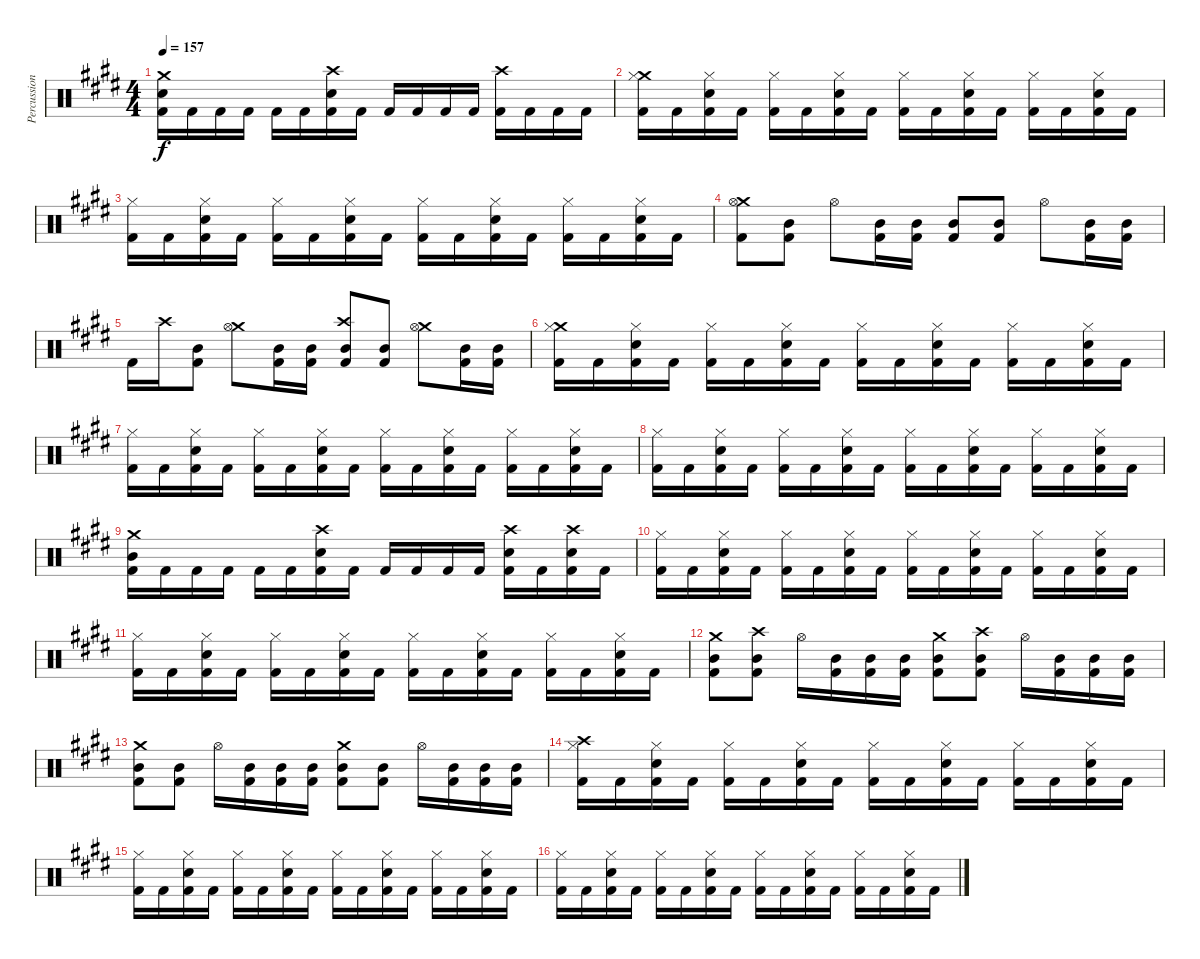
\track ("Percussion (Thomen Stauch)" "Percussion") {instrument percussion}
\staff {score}
\articulation defaults
\ts (4 4)
\tempo 157
\clef neutral
\ks c#minor
("Crash medium (hit)" "Snare (hit) 2" "Kick (hit) 2").16{dy f} "Kick (hit) 2".16 "Kick (hit) 2".16 "Kick (hit) 2".16 "Kick (hit) 2".16 "Kick (hit) 2".16 ("Crash high (hit)" "Snare (hit) 2" "Kick (hit) 2").16 "Kick (hit) 2".16 "Kick (hit) 2".16 "Kick (hit) 2".16 "Kick (hit) 2".16 "Kick (hit) 2".16 ("Crash high (hit)" "Kick (hit) 2").16 "Kick (hit) 2".16 "Kick (hit) 2".16 "Kick (hit) 2".16 |
("Crash medium (hit)" "Hi-Hat (closed)" "Kick (hit) 2").16 "Kick (hit) 2".16 ("Hi-Hat (closed)" "Snare (hit) 2" "Kick (hit) 2").16 "Kick (hit) 2".16 ("Hi-Hat (closed)" "Kick (hit) 2").16 "Kick (hit) 2".16 ("Hi-Hat (closed)" "Snare (hit) 2" "Kick (hit) 2").16 "Kick (hit) 2".16 ("Hi-Hat (closed)" "Kick (hit) 2").16 "Kick (hit) 2".16 ("Hi-Hat (closed)" "Snare (hit) 2" "Kick (hit) 2").16 "Kick (hit) 2".16 ("Hi-Hat (closed)" "Kick (hit) 2").16 "Kick (hit) 2".16 ("Hi-Hat (closed)" "Snare (hit) 2" "Kick (hit) 2").16 "Kick (hit) 2".16 |
("Hi-Hat (closed)" "Kick (hit) 2").16 "Kick (hit) 2".16 ("Hi-Hat (closed)" "Snare (hit) 2" "Kick (hit) 2").16 "Kick (hit) 2".16 ("Hi-Hat (closed)" "Kick (hit) 2").16 "Kick (hit) 2".16 ("Hi-Hat (closed)" "Snare (hit) 2" "Kick (hit) 2").16 "Kick (hit) 2".16 ("Hi-Hat (closed)" "Kick (hit) 2").16 "Kick (hit) 2".16 ("Hi-Hat (closed)" "Snare (hit) 2" "Kick (hit) 2").16 "Kick (hit) 2".16 ("Hi-Hat (closed)" "Kick (hit) 2").16 "Kick (hit) 2".16 ("Hi-Hat (closed)" "Snare (hit) 2" "Kick (hit) 2").16 "Kick (hit) 2".16 |
("Crash medium (hit)" "Hi-Hat (open)" "Kick (hit) 2").8 ("Mid Tom (hit)" "Kick (hit) 2").8 "Hi-Hat (open)".8 ("Mid Tom (hit)" "Kick (hit) 2").16 ("Mid Tom (hit)" "Kick (hit) 2").16 ("Mid Tom (hit)" "Kick (hit) 2").8 ("Mid Tom (hit)" "Kick (hit) 2").8 "Hi-Hat (open)".8 ("Mid Tom (hit)" "Kick (hit) 2").16 ("Mid Tom (hit)" "Kick (hit) 2").16 |
"Kick (hit) 2".16 "Crash high (hit)".16 ("Mid Tom (hit)" "Kick (hit) 2").8 ("Crash medium (hit)" "Hi-Hat (open)").8 ("Mid Tom (hit)" "Kick (hit) 2").16 ("Mid Tom (hit)" "Kick (hit) 2").16 ("Crash high (hit)" "Mid Tom (hit)" "Kick (hit) 2").8 ("Mid Tom (hit)" "Kick (hit) 2").8 ("Crash medium (hit)" "Hi-Hat (open)").8 ("Mid Tom (hit)" "Kick (hit) 2").16 ("Mid Tom (hit)" "Kick (hit) 2").16 |
("Crash medium (hit)" "Hi-Hat (closed)" "Kick (hit) 2").16 "Kick (hit) 2".16 ("Hi-Hat (closed)" "Snare (hit) 2" "Kick (hit) 2").16 "Kick (hit) 2".16 ("Hi-Hat (closed)" "Kick (hit) 2").16 "Kick (hit) 2".16 ("Hi-Hat (closed)" "Snare (hit) 2" "Kick (hit) 2").16 "Kick (hit) 2".16 ("Hi-Hat (closed)" "Kick (hit) 2").16 "Kick (hit) 2".16 ("Hi-Hat (closed)" "Snare (hit) 2" "Kick (hit) 2").16 "Kick (hit) 2".16 ("Hi-Hat (closed)" "Kick (hit) 2").16 "Kick (hit) 2".16 ("Hi-Hat (closed)" "Snare (hit) 2" "Kick (hit) 2").16 "Kick (hit) 2".16 |
("Hi-Hat (closed)" "Kick (hit) 2").16 "Kick (hit) 2".16 ("Hi-Hat (closed)" "Snare (hit) 2" "Kick (hit) 2").16 "Kick (hit) 2".16 ("Hi-Hat (closed)" "Kick (hit) 2").16 "Kick (hit) 2".16 ("Hi-Hat (closed)" "Snare (hit) 2" "Kick (hit) 2").16 "Kick (hit) 2".16 ("Hi-Hat (closed)" "Kick (hit) 2").16 "Kick (hit) 2".16 ("Hi-Hat (closed)" "Snare (hit) 2" "Kick (hit) 2").16 "Kick (hit) 2".16 ("Hi-Hat (closed)" "Kick (hit) 2").16 "Kick (hit) 2".16 ("Hi-Hat (closed)" "Snare (hit) 2" "Kick (hit) 2").16 "Kick (hit) 2".16 |
("Hi-Hat (closed)" "Kick (hit) 2").16 "Kick (hit) 2".16 ("Hi-Hat (closed)" "Snare (hit) 2" "Kick (hit) 2").16 "Kick (hit) 2".16 ("Hi-Hat (closed)" "Kick (hit) 2").16 "Kick (hit) 2".16 ("Hi-Hat (closed)" "Snare (hit) 2" "Kick (hit) 2").16 "Kick (hit) 2".16 ("Hi-Hat (closed)" "Kick (hit) 2").16 "Kick (hit) 2".16 ("Hi-Hat (closed)" "Snare (hit) 2" "Kick (hit) 2").16 "Kick (hit) 2".16 ("Hi-Hat (closed)" "Kick (hit) 2").16 "Kick (hit) 2".16 ("Hi-Hat (closed)" "Snare (hit) 2" "Kick (hit) 2").16 "Kick (hit) 2".16 |
("Crash medium (hit)" "Mid Tom (hit)" "Kick (hit) 2").16 "Kick (hit) 2".16 "Kick (hit) 2".16 "Kick (hit) 2".16 "Kick (hit) 2".16 "Kick (hit) 2".16 ("Crash high (hit)" "Snare (hit) 2" "Kick (hit) 2").16 "Kick (hit) 2".16 "Kick (hit) 2".16 "Kick (hit) 2".16 "Kick (hit) 2".16 "Kick (hit) 2".16 ("Crash high (hit)" "Snare (hit) 2" "Kick (hit) 2").16 "Kick (hit) 2".16 ("Crash high (hit)" "Snare (hit) 2" "Kick (hit) 2").16 "Kick (hit) 2".16 |
("Hi-Hat (closed)" "Kick (hit) 2").16 "Kick (hit) 2".16 ("Hi-Hat (closed)" "Snare (hit) 2" "Kick (hit) 2").16 "Kick (hit) 2".16 ("Hi-Hat (closed)" "Kick (hit) 2").16 "Kick (hit) 2".16 ("Hi-Hat (closed)" "Snare (hit) 2" "Kick (hit) 2").16 "Kick (hit) 2".16 ("Hi-Hat (closed)" "Kick (hit) 2").16 "Kick (hit) 2".16 ("Hi-Hat (closed)" "Snare (hit) 2" "Kick (hit) 2").16 "Kick (hit) 2".16 ("Hi-Hat (closed)" "Kick (hit) 2").16 "Kick (hit) 2".16 ("Hi-Hat (closed)" "Snare (hit) 2" "Kick (hit) 2").16 "Kick (hit) 2".16 |
("Hi-Hat (closed)" "Kick (hit) 2").16 "Kick (hit) 2".16 ("Hi-Hat (closed)" "Snare (hit) 2" "Kick (hit) 2").16 "Kick (hit) 2".16 ("Hi-Hat (closed)" "Kick (hit) 2").16 "Kick (hit) 2".16 ("Hi-Hat (closed)" "Snare (hit) 2" "Kick (hit) 2").16 "Kick (hit) 2".16 ("Hi-Hat (closed)" "Kick (hit) 2").16 "Kick (hit) 2".16 ("Hi-Hat (closed)" "Snare (hit) 2" "Kick (hit) 2").16 "Kick (hit) 2".16 ("Hi-Hat (closed)" "Kick (hit) 2").16 "Kick (hit) 2".16 ("Hi-Hat (closed)" "Snare (hit) 2" "Kick (hit) 2").16 "Kick (hit) 2".16 |
("Crash medium (hit)" "Mid Tom (hit)" "Kick (hit) 2").8 ("Crash high (hit)" "Mid Tom (hit)" "Kick (hit) 2").8 "Hi-Hat (open)".16 ("Mid Tom (hit)" "Kick (hit) 2").16 ("Mid Tom (hit)" "Kick (hit) 2").16 ("Mid Tom (hit)" "Kick (hit) 2").16 ("Crash medium (hit)" "Mid Tom (hit)" "Kick (hit) 2").8 ("Crash high (hit)" "Mid Tom (hit)" "Kick (hit) 2").8 "Hi-Hat (open)".16 ("Mid Tom (hit)" "Kick (hit) 2").16 ("Mid Tom (hit)" "Kick (hit) 2").16 ("Mid Tom (hit)" "Kick (hit) 2").16 |
("Crash medium (hit)" "Mid Tom (hit)" "Kick (hit) 2").8 ("Mid Tom (hit)" "Kick (hit) 2").8 "Hi-Hat (open)".16 ("Mid Tom (hit)" "Kick (hit) 2").16 ("Mid Tom (hit)" "Kick (hit) 2").16 ("Mid Tom (hit)" "Kick (hit) 2").16 ("Crash medium (hit)" "Mid Tom (hit)" "Kick (hit) 2").8 ("Mid Tom (hit)" "Kick (hit) 2").8 "Hi-Hat (open)".16 ("Mid Tom (hit)" "Kick (hit) 2").16 ("Mid Tom (hit)" "Kick (hit) 2").16 ("Mid Tom (hit)" "Kick (hit) 2").16 |
("Crash high (hit)" "Hi-Hat (closed)" "Kick (hit) 2").16 "Kick (hit) 2".16 ("Hi-Hat (closed)" "Snare (hit) 2" "Kick (hit) 2").16 "Kick (hit) 2".16 ("Hi-Hat (closed)" "Kick (hit) 2").16 "Kick (hit) 2".16 ("Hi-Hat (closed)" "Snare (hit) 2" "Kick (hit) 2").16 "Kick (hit) 2".16 ("Hi-Hat (closed)" "Kick (hit) 2").16 "Kick (hit) 2".16 ("Hi-Hat (closed)" "Snare (hit) 2" "Kick (hit) 2").16 "Kick (hit) 2".16 ("Hi-Hat (closed)" "Kick (hit) 2").16 "Kick (hit) 2".16 ("Hi-Hat (closed)" "Snare (hit) 2" "Kick (hit) 2").16 "Kick (hit) 2".16 |
("Hi-Hat (closed)" "Kick (hit) 2").16 "Kick (hit) 2".16 ("Hi-Hat (closed)" "Snare (hit) 2" "Kick (hit) 2").16 "Kick (hit) 2".16 ("Hi-Hat (closed)" "Kick (hit) 2").16 "Kick (hit) 2".16 ("Hi-Hat (closed)" "Snare (hit) 2" "Kick (hit) 2").16 "Kick (hit) 2".16 ("Hi-Hat (closed)" "Kick (hit) 2").16 "Kick (hit) 2".16 ("Hi-Hat (closed)" "Snare (hit) 2" "Kick (hit) 2").16 "Kick (hit) 2".16 ("Hi-Hat (closed)" "Kick (hit) 2").16 "Kick (hit) 2".16 ("Hi-Hat (closed)" "Snare (hit) 2" "Kick (hit) 2").16 "Kick (hit) 2".16 |
("Hi-Hat (closed)" "Kick (hit) 2").16 "Kick (hit) 2".16 ("Hi-Hat (closed)" "Snare (hit) 2" "Kick (hit) 2").16 "Kick (hit) 2".16 ("Hi-Hat (closed)" "Kick (hit) 2").16 "Kick (hit) 2".16 ("Hi-Hat (closed)" "Snare (hit) 2" "Kick (hit) 2").16 "Kick (hit) 2".16 ("Hi-Hat (closed)" "Kick (hit) 2").16 "Kick (hit) 2".16 ("Hi-Hat (closed)" "Snare (hit) 2" "Kick (hit) 2").16 "Kick (hit) 2".16 ("Hi-Hat (closed)" "Kick (hit) 2").16 "Kick (hit) 2".16 ("Hi-Hat (closed)" "Snare (hit) 2" "Kick (hit) 2").16 "Kick (hit) 2".16
